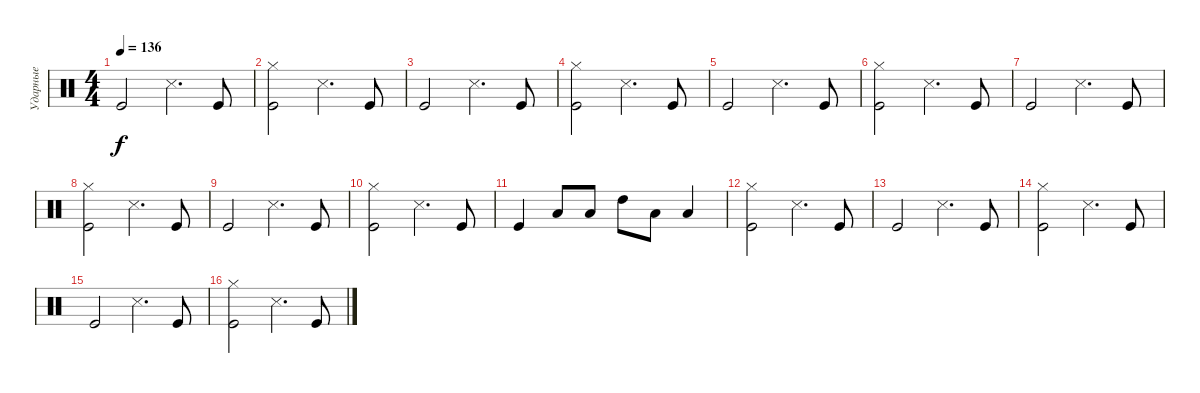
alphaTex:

\track ("Ударные" "Ударные") {instrument percussion}
\staff {score}
\articulation defaults
\ts (4 4)
\tempo 136
\clef neutral
\ks c "Kick (hit)".2{dy f} "Snare (side stick) 3".4{d} "Kick (hit)".8
|
("Kick (hit)" "Hi-Hat (closed)").2 "Snare (side stick) 3".4{d} "Kick (hit)".8 |
"Kick (hit)".2 "Snare (side stick) 3".4{d} "Kick (hit)".8 |
("Kick (hit)" "Hi-Hat (closed)").2 "Snare (side stick) 3".4{d} "Kick (hit)".8 |
"Kick (hit)".2 "Snare (side stick) 3".4{d} "Kick (hit)".8 |
("Kick (hit)" "Hi-Hat (closed)").2 "Snare (side stick) 3".4{d} "Kick (hit)".8 |
"Kick (hit)".2 "Snare (side stick) 3".4{d} "Kick (hit)".8 |
("Kick (hit)" "Hi-Hat (closed)").2 "Snare (side stick) 3".4{d} "Kick (hit)".8 |
"Kick (hit)".2 "Snare (side stick) 3".4{d} "Kick (hit)".8 |
("Kick (hit)" "Hi-Hat (closed)").2 "Snare (side stick) 3".4{d} "Kick (hit)".8 |
"Kick (hit)".4 "Low Floor Tom (hit)".8 "Low Floor Tom (hit)".8 "High Tom (hit)".8 "Low Tom (hit)".8 "Low Floor Tom (hit)".4 |
("Kick (hit)" "Hi-Hat (closed)").2 "Snare (side stick) 3".4{d} "Kick (hit)".8 |
"Kick (hit)".2 "Snare (side stick) 3".4{d} "Kick (hit)".8 |
("Kick (hit)" "Hi-Hat (closed)").2 "Snare (side stick) 3".4{d} "Kick (hit)".8 |
"Kick (hit)".2 "Snare (side stick) 3".4{d} "Kick (hit)".8 |
("Kick (hit)" "Hi-Hat (closed)").2 "Snare (side stick) 3".4{d} "Kick (hit)".8
